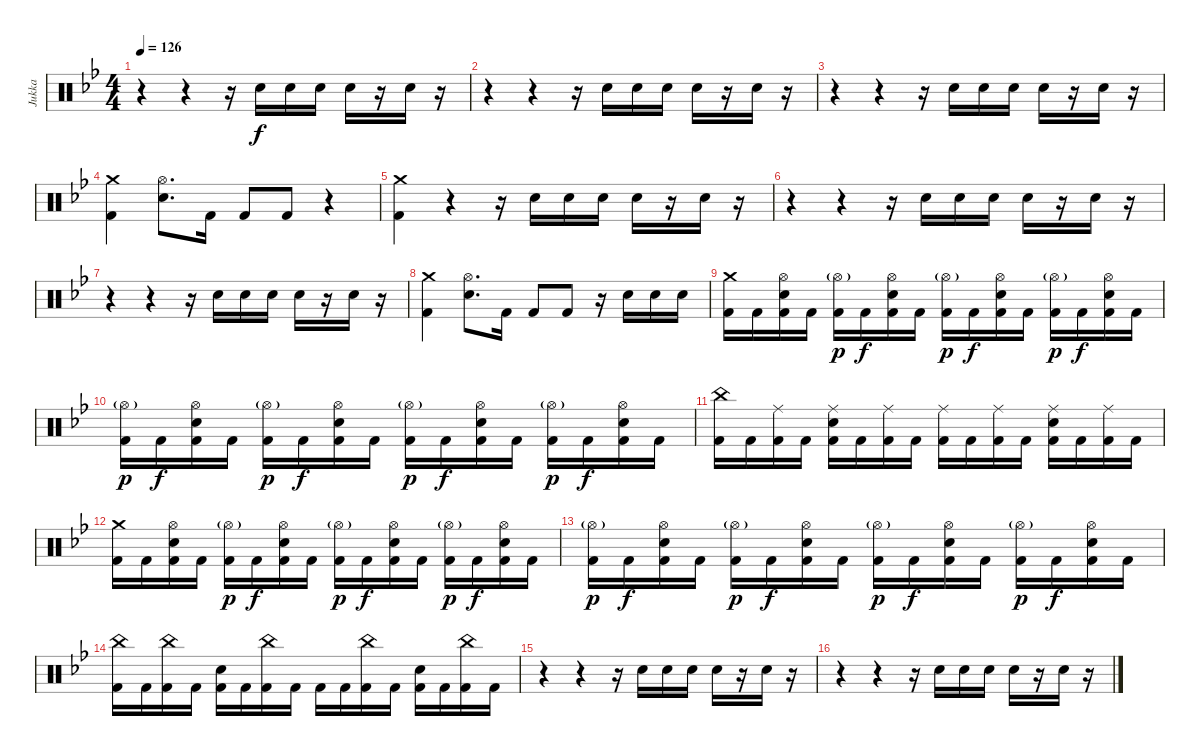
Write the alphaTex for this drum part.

\track ("Jukka" "Jukka") {instrument percussion}
\staff {score}
\articulation defaults
\ts (4 4)
\tempo 126
\clef neutral
\ks gminor
r.4{dy f} r.4 r.16 "Electric Snare (hit)".16 "Electric Snare (hit)".16 "Electric Snare (hit)".16 "Electric Snare (hit)".16 r.16 "Electric Snare (hit)".16 r.16 |
r.4 r.4 r.16 "Electric Snare (hit)".16 "Electric Snare (hit)".16 "Electric Snare (hit)".16 "Electric Snare (hit)".16 r.16 "Electric Snare (hit)".16 r.16 |
r.4 r.4 r.16 "Electric Snare (hit)".16 "Electric Snare (hit)".16 "Electric Snare (hit)".16 "Electric Snare (hit)".16 r.16 "Electric Snare (hit)".16 r.16 |
("Crash medium (hit)" "Kick (hit) 2").4 ("Hi-Hat (open)" "Electric Snare (hit)").8{d} "Kick (hit) 2".16 "Kick (hit) 2".8 "Kick (hit) 2".8 r.4 |
("Crash medium (hit)" "Kick (hit) 2").4 r.4 r.16 "Electric Snare (hit)".16 "Electric Snare (hit)".16 "Electric Snare (hit)".16 "Electric Snare (hit)".16 r.16 "Electric Snare (hit)".16 r.16 |
r.4 r.4 r.16 "Electric Snare (hit)".16 "Electric Snare (hit)".16 "Electric Snare (hit)".16 "Electric Snare (hit)".16 r.16 "Electric Snare (hit)".16 r.16 |
r.4 r.4 r.16 "Electric Snare (hit)".16 "Electric Snare (hit)".16 "Electric Snare (hit)".16 "Electric Snare (hit)".16 r.16 "Electric Snare (hit)".16 r.16 |
("Crash medium (hit)" "Kick (hit) 2").4 ("Hi-Hat (open)" "Electric Snare (hit)").8{d} "Kick (hit) 2".16 "Kick (hit) 2".8 "Kick (hit) 2".8 r.16 "Electric Snare (hit)".16 "Electric Snare (hit)".16 "Electric Snare (hit)".16 |
("Crash medium (hit)" "Kick (hit) 2").16 "Kick (hit) 2".16 ("Hi-Hat (open)" "Electric Snare (hit)" "Kick (hit) 2").16 "Kick (hit) 2".16 ("Hi-Hat (open)"{g} "Kick (hit) 2").16{dy p} "Kick (hit) 2".16{dy f} ("Hi-Hat (open)" "Electric Snare (hit)" "Kick (hit) 2").16 "Kick (hit) 2".16 ("Hi-Hat (open)"{g} "Kick (hit) 2").16{dy p} "Kick (hit) 2".16{dy f} ("Hi-Hat (open)" "Electric Snare (hit)" "Kick (hit) 2").16 "Kick (hit) 2".16 ("Hi-Hat (open)"{g} "Kick (hit) 2").16{dy p} "Kick (hit) 2".16{dy f} ("Hi-Hat (open)" "Electric Snare (hit)" "Kick (hit) 2").16 "Kick (hit) 2".16 |
("Hi-Hat (open)"{g} "Kick (hit) 2").16{dy p} "Kick (hit) 2".16{dy f} ("Hi-Hat (open)" "Electric Snare (hit)" "Kick (hit) 2").16 "Kick (hit) 2".16 ("Hi-Hat (open)"{g} "Kick (hit) 2").16{dy p} "Kick (hit) 2".16{dy f} ("Hi-Hat (open)" "Electric Snare (hit)" "Kick (hit) 2").16 "Kick (hit) 2".16 ("Hi-Hat (open)"{g} "Kick (hit) 2").16{dy p} "Kick (hit) 2".16{dy f} ("Hi-Hat (open)" "Electric Snare (hit)" "Kick (hit) 2").16 "Kick (hit) 2".16 ("Hi-Hat (open)"{g} "Kick (hit) 2").16{dy p} "Kick (hit) 2".16{dy f} ("Hi-Hat (open)" "Electric Snare (hit)" "Kick (hit) 2").16 "Kick (hit) 2".16 |
("China (hit)" "Kick (hit) 2").16 "Kick (hit) 2".16 ("Ride (middle)" "Kick (hit) 2").16 "Kick (hit) 2".16 ("Ride (middle)" "Electric Snare (hit)" "Kick (hit) 2").16 "Kick (hit) 2".16 ("Ride (middle)" "Kick (hit) 2").16 "Kick (hit) 2".16 ("Ride (middle)" "Kick (hit) 2").16 "Kick (hit) 2".16 ("Ride (middle)" "Kick (hit) 2").16 "Kick (hit) 2".16 ("Ride (middle)" "Electric Snare (hit)" "Kick (hit) 2").16 "Kick (hit) 2".16 ("Ride (middle)" "Kick (hit) 2").16 "Kick (hit) 2".16 |
("Crash medium (hit)" "Kick (hit) 2").16 "Kick (hit) 2".16 ("Hi-Hat (open)" "Electric Snare (hit)" "Kick (hit) 2").16 "Kick (hit) 2".16 ("Hi-Hat (open)"{g} "Kick (hit) 2").16{dy p} "Kick (hit) 2".16{dy f} ("Hi-Hat (open)" "Electric Snare (hit)" "Kick (hit) 2").16 "Kick (hit) 2".16 ("Hi-Hat (open)"{g} "Kick (hit) 2").16{dy p} "Kick (hit) 2".16{dy f} ("Hi-Hat (open)" "Electric Snare (hit)" "Kick (hit) 2").16 "Kick (hit) 2".16 ("Hi-Hat (open)"{g} "Kick (hit) 2").16{dy p} "Kick (hit) 2".16{dy f} ("Hi-Hat (open)" "Electric Snare (hit)" "Kick (hit) 2").16 "Kick (hit) 2".16 |
("Hi-Hat (open)"{g} "Kick (hit) 2").16{dy p} "Kick (hit) 2".16{dy f} ("Hi-Hat (open)" "Electric Snare (hit)" "Kick (hit) 2").16 "Kick (hit) 2".16 ("Hi-Hat (open)"{g} "Kick (hit) 2").16{dy p} "Kick (hit) 2".16{dy f} ("Hi-Hat (open)" "Electric Snare (hit)" "Kick (hit) 2").16 "Kick (hit) 2".16 ("Hi-Hat (open)"{g} "Kick (hit) 2").16{dy p} "Kick (hit) 2".16{dy f} ("Hi-Hat (open)" "Electric Snare (hit)" "Kick (hit) 2").16 "Kick (hit) 2".16 ("Hi-Hat (open)"{g} "Kick (hit) 2").16{dy p} "Kick (hit) 2".16{dy f} ("Hi-Hat (open)" "Electric Snare (hit)" "Kick (hit) 2").16 "Kick (hit) 2".16 |
("China (hit)" "Kick (hit) 2").16 "Kick (hit) 2".16 ("China (hit)" "Kick (hit) 2").16 "Kick (hit) 2".16 ("Electric Snare (hit)" "Kick (hit) 2").16 "Kick (hit) 2".16 ("China (hit)" "Kick (hit) 2").16 "Kick (hit) 2".16 "Kick (hit) 2".16 "Kick (hit) 2".16 ("China (hit)" "Kick (hit) 2").16 "Kick (hit) 2".16 ("Electric Snare (hit)" "Kick (hit) 2").16 "Kick (hit) 2".16 ("China (hit)" "Kick (hit) 2").16 "Kick (hit) 2".16 |
r.4 r.4 r.16 "Electric Snare (hit)".16 "Electric Snare (hit)".16 "Electric Snare (hit)".16 "Electric Snare (hit)".16 r.16 "Electric Snare (hit)".16 r.16 |
r.4 r.4 r.16 "Electric Snare (hit)".16 "Electric Snare (hit)".16 "Electric Snare (hit)".16 "Electric Snare (hit)".16 r.16 "Electric Snare (hit)".16 r.16
